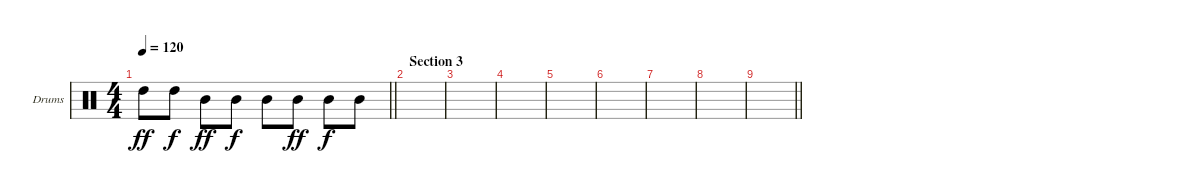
\defaultSystemsLayout 4
\bracketExtendMode groupsimilarinstruments
\firstSystemTrackNameOrientation horizontal
\otherSystemsTrackNameOrientation horizontal
\track ("Drums Aux" "Drums") {instrument percussion}
\staff {score}
\articulation defaults
\ts (4 4)
\tempo 120
\clef neutral
\barLineRight lightlight
\ks c "High Tom (hit)".8{dy ff} "High Tom (hit)".8{dy f} "Mid Tom (hit)".8{dy ff} "Mid Tom (hit)".8{dy f} "Mid Tom (hit)".8 "Mid Tom (hit)".8{dy ff} "Mid Tom (hit)".8{dy f} "Mid Tom (hit)".8
|
\section ("" "Section 3")
|
|
|
|
|
|
|
\barLineRight lightlight
